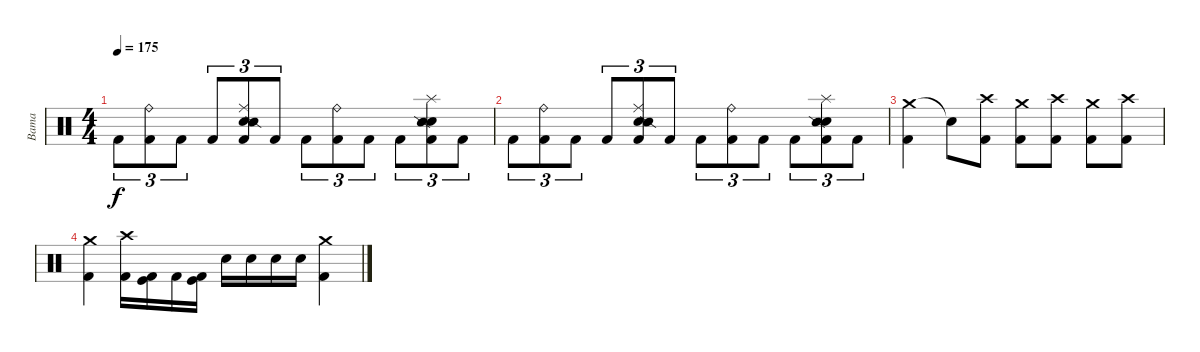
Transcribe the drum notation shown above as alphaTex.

\track ("Bama" "Bama") {instrument percussion}
\staff {score}
\articulation defaults
\ts (4 4)
\tempo 175
\clef neutral
\ks c "Kick (hit) 2".8{tu (3 2) dy f}
("Ride (bell)" "Kick (hit) 2").8{tu (3 2)} "Kick (hit) 2".8{tu (3 2)} "Kick (hit) 2".8{tu (3 2)} ("Ride (middle)" "Electric Snare (hit)" "Snare (side stick) 2" "Kick (hit) 2").8{tu (3 2)} "Kick (hit) 2".8{tu (3 2)} "Kick (hit) 2".8{tu (3 2)} ("Ride (bell)" "Kick (hit) 2").8{tu (3 2)} "Kick (hit) 2".8{tu (3 2)} "Kick (hit) 2".8{tu (3 2)} ("Splash (hit)" "Electric Snare (hit)" "Snare (side stick) 2" "Kick (hit) 2").8{tu (3 2)} "Kick (hit) 2".8{tu (3 2)} |
"Kick (hit) 2".8{tu (3 2)} ("Ride (bell)" "Kick (hit) 2").8{tu (3 2)} "Kick (hit) 2".8{tu (3 2)} "Kick (hit) 2".8{tu (3 2)} ("Ride (middle)" "Electric Snare (hit)" "Snare (side stick) 2" "Kick (hit) 2").8{tu (3 2)} "Kick (hit) 2".8{tu (3 2)} "Kick (hit) 2".8{tu (3 2)} ("Ride (bell)" "Kick (hit) 2").8{tu (3 2)} "Kick (hit) 2".8{tu (3 2)} "Kick (hit) 2".8{tu (3 2)} ("Splash (hit)" "Electric Snare (hit)" "Snare (side stick) 2" "Kick (hit) 2").8{tu (3 2)} "Kick (hit) 2".8{tu (3 2)} |
("Crash medium (hit)" "Kick (hit) 2").4 "Snare (hit)"{t}.8 ("Crash high (hit)" "Kick (hit) 2").8 ("Crash medium (hit)" "Kick (hit) 2").8 ("Crash high (hit)" "Kick (hit) 2").8 ("Crash medium (hit)" "Kick (hit) 2").8 ("Crash high (hit)" "Kick (hit) 2").8 |
("Crash medium (hit)" "Kick (hit) 2").4 ("Crash high (hit)" "Kick (hit) 2").16 ("Kick (hit)" "Kick (hit) 2").16 "Kick (hit) 2".16 ("Kick (hit)" "Kick (hit) 2").16 "Electric Snare (hit)".16 "Electric Snare (hit)".16 "Electric Snare (hit)".16 "Electric Snare (hit)".16 ("Crash medium (hit)" "Kick (hit) 2").4
